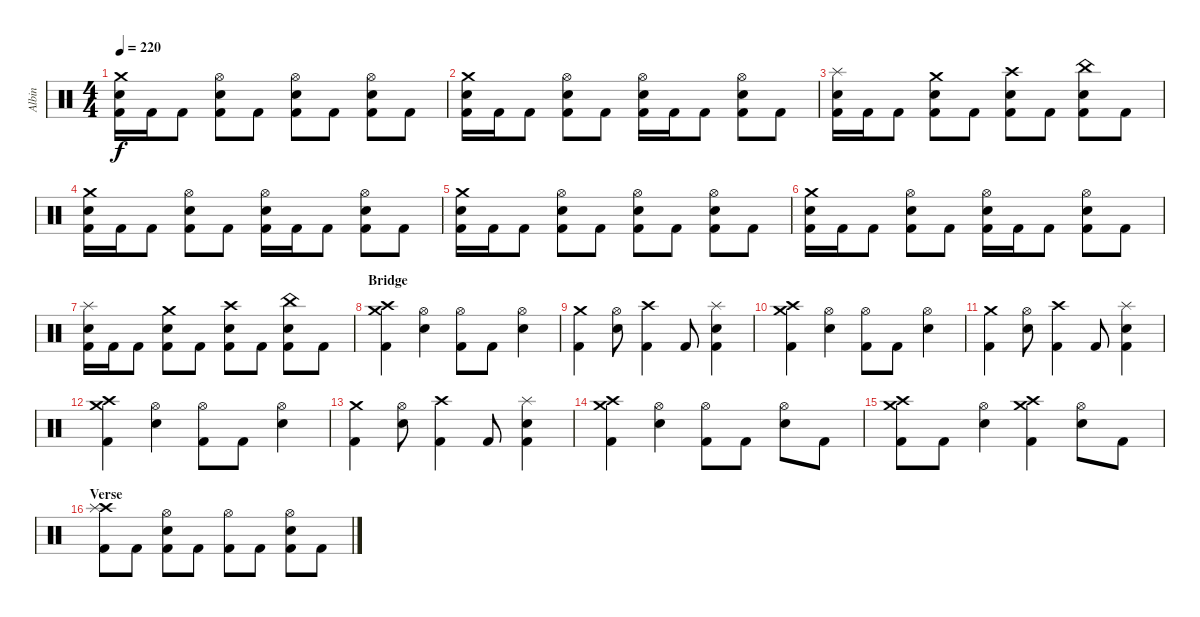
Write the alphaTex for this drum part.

\track ("Albin" "Albin") {instrument percussion}
\staff {score}
\articulation defaults
\ts (4 4)
\tempo 220
\clef neutral
\ks c
("Kick (hit) 2" "Electric Snare (hit)" "Crash medium (hit)").16{dy f} "Kick (hit) 2".16 "Kick (hit) 2".8 ("Kick (hit) 2" "Electric Snare (hit)" "Hi-Hat (open)").8 "Kick (hit) 2".8 ("Kick (hit) 2" "Electric Snare (hit)" "Hi-Hat (open)").8 "Kick (hit) 2".8 ("Kick (hit) 2" "Electric Snare (hit)" "Hi-Hat (open)").8 "Kick (hit) 2".8 |
("Kick (hit) 2" "Electric Snare (hit)" "Crash medium (hit)").16 "Kick (hit) 2".16 "Kick (hit) 2".8 ("Kick (hit) 2" "Electric Snare (hit)" "Hi-Hat (open)").8 "Kick (hit) 2".8 ("Kick (hit) 2" "Electric Snare (hit)" "Hi-Hat (open)").16 "Kick (hit) 2".16 "Kick (hit) 2".8 ("Kick (hit) 2" "Electric Snare (hit)" "Hi-Hat (open)").8 "Kick (hit) 2".8 |
("Kick (hit) 2" "Electric Snare (hit)" "Splash (hit)").16 "Kick (hit) 2".16 "Kick (hit) 2".8 ("Kick (hit) 2" "Electric Snare (hit)" "Crash medium (hit)").8 "Kick (hit) 2".8 ("Kick (hit) 2" "Electric Snare (hit)" "Crash high (hit)").8 "Kick (hit) 2".8 ("Kick (hit) 2" "Electric Snare (hit)" "China (hit)").8 "Kick (hit) 2".8 |
("Kick (hit) 2" "Electric Snare (hit)" "Crash medium (hit)").16 "Kick (hit) 2".16 "Kick (hit) 2".8 ("Kick (hit) 2" "Electric Snare (hit)" "Hi-Hat (open)").8 "Kick (hit) 2".8 ("Kick (hit) 2" "Electric Snare (hit)" "Hi-Hat (open)").16 "Kick (hit) 2".16 "Kick (hit) 2".8 ("Kick (hit) 2" "Electric Snare (hit)" "Hi-Hat (open)").8 "Kick (hit) 2".8 |
("Kick (hit) 2" "Electric Snare (hit)" "Crash medium (hit)").16 "Kick (hit) 2".16 "Kick (hit) 2".8 ("Kick (hit) 2" "Electric Snare (hit)" "Hi-Hat (open)").8 "Kick (hit) 2".8 ("Kick (hit) 2" "Electric Snare (hit)" "Hi-Hat (open)").8 "Kick (hit) 2".8 ("Kick (hit) 2" "Electric Snare (hit)" "Hi-Hat (open)").8 "Kick (hit) 2".8 |
("Kick (hit) 2" "Electric Snare (hit)" "Crash medium (hit)").16 "Kick (hit) 2".16 "Kick (hit) 2".8 ("Kick (hit) 2" "Electric Snare (hit)" "Hi-Hat (open)").8 "Kick (hit) 2".8 ("Kick (hit) 2" "Electric Snare (hit)" "Hi-Hat (open)").16 "Kick (hit) 2".16 "Kick (hit) 2".8 ("Kick (hit) 2" "Electric Snare (hit)" "Hi-Hat (open)").8 "Kick (hit) 2".8 |
("Kick (hit) 2" "Electric Snare (hit)" "Splash (hit)").16 "Kick (hit) 2".16 "Kick (hit) 2".8 ("Kick (hit) 2" "Electric Snare (hit)" "Crash medium (hit)").8 "Kick (hit) 2".8 ("Kick (hit) 2" "Electric Snare (hit)" "Crash high (hit)").8 "Kick (hit) 2".8 ("Kick (hit) 2" "Electric Snare (hit)" "China (hit)").8 "Kick (hit) 2".8 |
\section ("" "Bridge")
("Kick (hit) 2" "Crash high (hit)" "Crash medium (hit)").4 ("Electric Snare (hit)" "Hi-Hat (open)").4 ("Kick (hit) 2" "Hi-Hat (open)").8 "Kick (hit) 2".8 ("Electric Snare (hit)" "Hi-Hat (open)").4 |
("Kick (hit) 2" "Crash medium (hit)").4 ("Electric Snare (hit)" "Hi-Hat (open)").8 ("Kick (hit) 2" "Crash high (hit)").4 "Kick (hit) 2".8 ("Kick (hit) 2" "Electric Snare (hit)" "Splash (hit)").4 |
("Kick (hit) 2" "Crash high (hit)" "Crash medium (hit)").4 ("Electric Snare (hit)" "Hi-Hat (open)").4 ("Kick (hit) 2" "Hi-Hat (open)").8 "Kick (hit) 2".8 ("Electric Snare (hit)" "Hi-Hat (open)").4 |
("Kick (hit) 2" "Crash medium (hit)").4 ("Electric Snare (hit)" "Hi-Hat (open)").8 ("Kick (hit) 2" "Crash high (hit)").4 "Kick (hit) 2".8 ("Kick (hit) 2" "Electric Snare (hit)" "Splash (hit)").4 |
("Kick (hit) 2" "Crash high (hit)" "Crash medium (hit)").4 ("Electric Snare (hit)" "Hi-Hat (open)").4 ("Kick (hit) 2" "Hi-Hat (open)").8 "Kick (hit) 2".8 ("Electric Snare (hit)" "Hi-Hat (open)").4 |
("Kick (hit) 2" "Crash medium (hit)").4 ("Electric Snare (hit)" "Hi-Hat (open)").8 ("Kick (hit) 2" "Crash high (hit)").4 "Kick (hit) 2".8 ("Kick (hit) 2" "Electric Snare (hit)" "Splash (hit)").4 |
("Kick (hit) 2" "Crash high (hit)" "Crash medium (hit)").4 ("Electric Snare (hit)" "Hi-Hat (open)").4 ("Kick (hit) 2" "Hi-Hat (open)").8 "Kick (hit) 2".8 ("Electric Snare (hit)" "Hi-Hat (open)").8 "Kick (hit) 2".8 |
("Kick (hit) 2" "Crash high (hit)" "Crash medium (hit)").8 "Kick (hit) 2".8 ("Electric Snare (hit)" "Hi-Hat (open)").4 ("Kick (hit) 2" "Crash high (hit)" "Crash medium (hit)").4 ("Electric Snare (hit)" "Hi-Hat (open)").8 "Kick (hit) 2".8 |
\section ("" "Verse")
("Kick (hit) 2" "Crash high (hit)" "Splash (hit)").8 "Kick (hit) 2".8 ("Kick (hit) 2" "Electric Snare (hit)" "Hi-Hat (open)").8 "Kick (hit) 2".8 ("Kick (hit) 2" "Hi-Hat (open)").8 "Kick (hit) 2".8 ("Kick (hit) 2" "Electric Snare (hit)" "Hi-Hat (open)").8 "Kick (hit) 2".8
